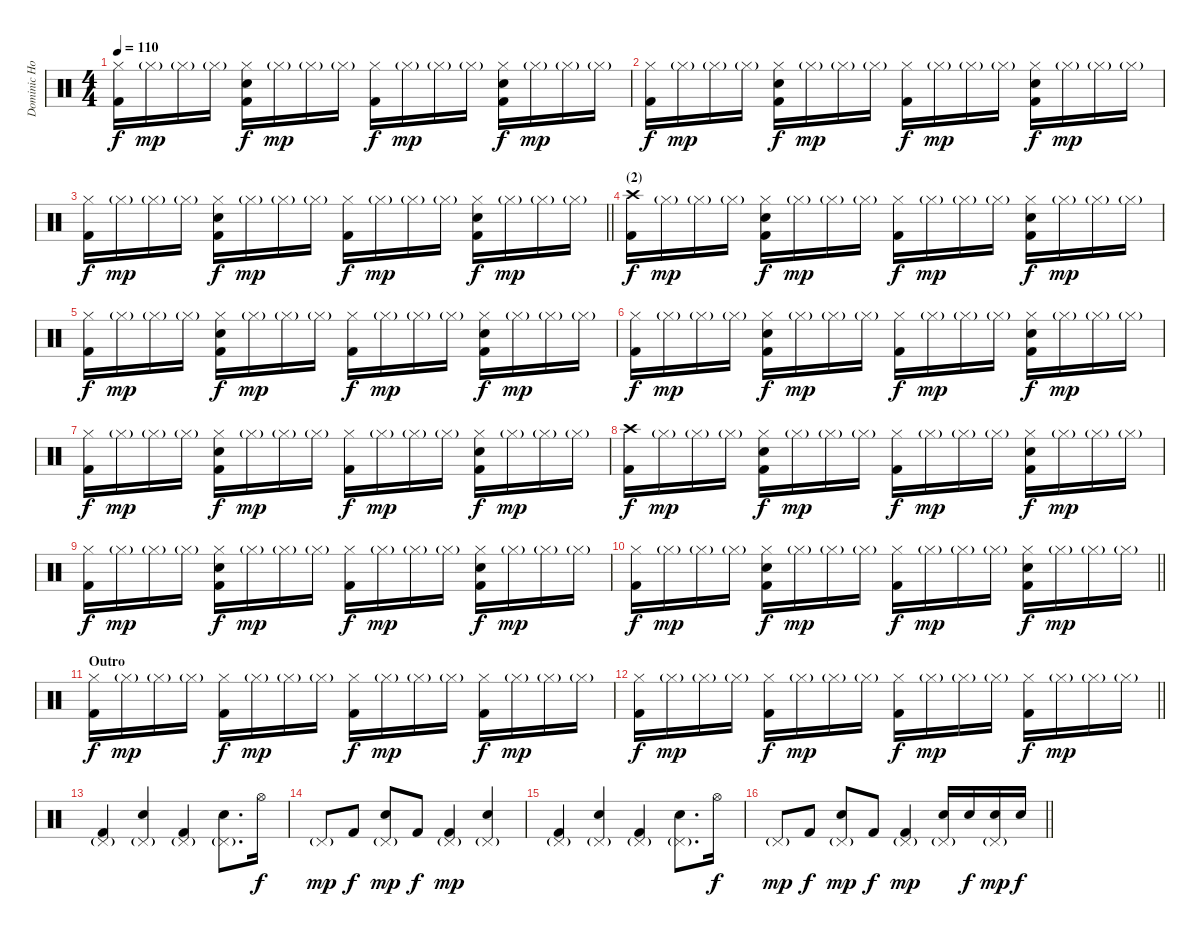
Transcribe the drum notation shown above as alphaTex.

\track ("Dominic Howard (Drums)" "Dominic Ho") {instrument percussion}
\staff {score}
\articulation defaults
\ts (4 4)
\tempo 110
\clef neutral
\ks c
("Hi-Hat (closed)" "Kick (hit) 2").16{dy f} "Hi-Hat (closed)"{g}.16{dy mp} "Hi-Hat (closed)"{g}.16 "Hi-Hat (closed)"{g}.16 ("Hi-Hat (closed)" "Snare (hit) 2" "Kick (hit) 2").16{dy f} "Hi-Hat (closed)"{g}.16{dy mp} "Hi-Hat (closed)"{g}.16 "Hi-Hat (closed)"{g}.16 ("Hi-Hat (closed)" "Kick (hit) 2").16{dy f} "Hi-Hat (closed)"{g}.16{dy mp} "Hi-Hat (closed)"{g}.16 "Hi-Hat (closed)"{g}.16 ("Hi-Hat (closed)" "Snare (hit) 2" "Kick (hit) 2").16{dy f} "Hi-Hat (closed)"{g}.16{dy mp} "Hi-Hat (closed)"{g}.16 "Hi-Hat (closed)"{g}.16 |
("Hi-Hat (closed)" "Kick (hit) 2").16{dy f} "Hi-Hat (closed)"{g}.16{dy mp} "Hi-Hat (closed)"{g}.16 "Hi-Hat (closed)"{g}.16 ("Hi-Hat (closed)" "Snare (hit) 2" "Kick (hit) 2").16{dy f} "Hi-Hat (closed)"{g}.16{dy mp} "Hi-Hat (closed)"{g}.16 "Hi-Hat (closed)"{g}.16 ("Hi-Hat (closed)" "Kick (hit) 2").16{dy f} "Hi-Hat (closed)"{g}.16{dy mp} "Hi-Hat (closed)"{g}.16 "Hi-Hat (closed)"{g}.16 ("Hi-Hat (closed)" "Snare (hit) 2" "Kick (hit) 2").16{dy f} "Hi-Hat (closed)"{g}.16{dy mp} "Hi-Hat (closed)"{g}.16 "Hi-Hat (closed)"{g}.16 |
\barLineRight lightlight
("Hi-Hat (closed)" "Kick (hit) 2").16{dy f} "Hi-Hat (closed)"{g}.16{dy mp} "Hi-Hat (closed)"{g}.16 "Hi-Hat (closed)"{g}.16 ("Hi-Hat (closed)" "Snare (hit) 2" "Kick (hit) 2").16{dy f} "Hi-Hat (closed)"{g}.16{dy mp} "Hi-Hat (closed)"{g}.16 "Hi-Hat (closed)"{g}.16 ("Hi-Hat (closed)" "Kick (hit) 2").16{dy f} "Hi-Hat (closed)"{g}.16{dy mp} "Hi-Hat (closed)"{g}.16 "Hi-Hat (closed)"{g}.16 ("Hi-Hat (closed)" "Snare (hit) 2" "Kick (hit) 2").16{dy f} "Hi-Hat (closed)"{g}.16{dy mp} "Hi-Hat (closed)"{g}.16 "Hi-Hat (closed)"{g}.16 |
\section ("" "(2)")
("Crash high (hit)" "Kick (hit) 2").16{dy f} "Hi-Hat (closed)"{g}.16{dy mp} "Hi-Hat (closed)"{g}.16 "Hi-Hat (closed)"{g}.16 ("Hi-Hat (closed)" "Snare (hit) 2" "Kick (hit) 2").16{dy f} "Hi-Hat (closed)"{g}.16{dy mp} "Hi-Hat (closed)"{g}.16 "Hi-Hat (closed)"{g}.16 ("Hi-Hat (closed)" "Kick (hit) 2").16{dy f} "Hi-Hat (closed)"{g}.16{dy mp} "Hi-Hat (closed)"{g}.16 "Hi-Hat (closed)"{g}.16 ("Hi-Hat (closed)" "Snare (hit) 2" "Kick (hit) 2").16{dy f} "Hi-Hat (closed)"{g}.16{dy mp} "Hi-Hat (closed)"{g}.16 "Hi-Hat (closed)"{g}.16 |
("Hi-Hat (closed)" "Kick (hit) 2").16{dy f} "Hi-Hat (closed)"{g}.16{dy mp} "Hi-Hat (closed)"{g}.16 "Hi-Hat (closed)"{g}.16 ("Hi-Hat (closed)" "Snare (hit) 2" "Kick (hit) 2").16{dy f} "Hi-Hat (closed)"{g}.16{dy mp} "Hi-Hat (closed)"{g}.16 "Hi-Hat (closed)"{g}.16 ("Hi-Hat (closed)" "Kick (hit) 2").16{dy f} "Hi-Hat (closed)"{g}.16{dy mp} "Hi-Hat (closed)"{g}.16 "Hi-Hat (closed)"{g}.16 ("Hi-Hat (closed)" "Snare (hit) 2" "Kick (hit) 2").16{dy f} "Hi-Hat (closed)"{g}.16{dy mp} "Hi-Hat (closed)"{g}.16 "Hi-Hat (closed)"{g}.16 |
("Hi-Hat (closed)" "Kick (hit) 2").16{dy f} "Hi-Hat (closed)"{g}.16{dy mp} "Hi-Hat (closed)"{g}.16 "Hi-Hat (closed)"{g}.16 ("Hi-Hat (closed)" "Snare (hit) 2" "Kick (hit) 2").16{dy f} "Hi-Hat (closed)"{g}.16{dy mp} "Hi-Hat (closed)"{g}.16 "Hi-Hat (closed)"{g}.16 ("Hi-Hat (closed)" "Kick (hit) 2").16{dy f} "Hi-Hat (closed)"{g}.16{dy mp} "Hi-Hat (closed)"{g}.16 "Hi-Hat (closed)"{g}.16 ("Hi-Hat (closed)" "Snare (hit) 2" "Kick (hit) 2").16{dy f} "Hi-Hat (closed)"{g}.16{dy mp} "Hi-Hat (closed)"{g}.16 "Hi-Hat (closed)"{g}.16 |
("Hi-Hat (closed)" "Kick (hit) 2").16{dy f} "Hi-Hat (closed)"{g}.16{dy mp} "Hi-Hat (closed)"{g}.16 "Hi-Hat (closed)"{g}.16 ("Hi-Hat (closed)" "Snare (hit) 2" "Kick (hit) 2").16{dy f} "Hi-Hat (closed)"{g}.16{dy mp} "Hi-Hat (closed)"{g}.16 "Hi-Hat (closed)"{g}.16 ("Hi-Hat (closed)" "Kick (hit) 2").16{dy f} "Hi-Hat (closed)"{g}.16{dy mp} "Hi-Hat (closed)"{g}.16 "Hi-Hat (closed)"{g}.16 ("Hi-Hat (closed)" "Snare (hit) 2" "Kick (hit) 2").16{dy f} "Hi-Hat (closed)"{g}.16{dy mp} "Hi-Hat (closed)"{g}.16 "Hi-Hat (closed)"{g}.16 |
("Crash high (hit)" "Kick (hit) 2").16{dy f} "Hi-Hat (closed)"{g}.16{dy mp} "Hi-Hat (closed)"{g}.16 "Hi-Hat (closed)"{g}.16 ("Hi-Hat (closed)" "Snare (hit) 2" "Kick (hit) 2").16{dy f} "Hi-Hat (closed)"{g}.16{dy mp} "Hi-Hat (closed)"{g}.16 "Hi-Hat (closed)"{g}.16 ("Hi-Hat (closed)" "Kick (hit) 2").16{dy f} "Hi-Hat (closed)"{g}.16{dy mp} "Hi-Hat (closed)"{g}.16 "Hi-Hat (closed)"{g}.16 ("Hi-Hat (closed)" "Snare (hit) 2" "Kick (hit) 2").16{dy f} "Hi-Hat (closed)"{g}.16{dy mp} "Hi-Hat (closed)"{g}.16 "Hi-Hat (closed)"{g}.16 |
("Hi-Hat (closed)" "Kick (hit) 2").16{dy f} "Hi-Hat (closed)"{g}.16{dy mp} "Hi-Hat (closed)"{g}.16 "Hi-Hat (closed)"{g}.16 ("Hi-Hat (closed)" "Snare (hit) 2" "Kick (hit) 2").16{dy f} "Hi-Hat (closed)"{g}.16{dy mp} "Hi-Hat (closed)"{g}.16 "Hi-Hat (closed)"{g}.16 ("Hi-Hat (closed)" "Kick (hit) 2").16{dy f} "Hi-Hat (closed)"{g}.16{dy mp} "Hi-Hat (closed)"{g}.16 "Hi-Hat (closed)"{g}.16 ("Hi-Hat (closed)" "Snare (hit) 2" "Kick (hit) 2").16{dy f} "Hi-Hat (closed)"{g}.16{dy mp} "Hi-Hat (closed)"{g}.16 "Hi-Hat (closed)"{g}.16 |
\barLineRight lightlight
("Hi-Hat (closed)" "Kick (hit) 2").16{dy f} "Hi-Hat (closed)"{g}.16{dy mp} "Hi-Hat (closed)"{g}.16 "Hi-Hat (closed)"{g}.16 ("Hi-Hat (closed)" "Snare (hit) 2" "Kick (hit) 2").16{dy f} "Hi-Hat (closed)"{g}.16{dy mp} "Hi-Hat (closed)"{g}.16 "Hi-Hat (closed)"{g}.16 ("Hi-Hat (closed)" "Kick (hit) 2").16{dy f} "Hi-Hat (closed)"{g}.16{dy mp} "Hi-Hat (closed)"{g}.16 "Hi-Hat (closed)"{g}.16 ("Hi-Hat (closed)" "Snare (hit) 2" "Kick (hit) 2").16{dy f} "Hi-Hat (closed)"{g}.16{dy mp} "Hi-Hat (closed)"{g}.16 "Hi-Hat (closed)"{g}.16 |
\section ("" "Outro")
("Hi-Hat (closed)" "Kick (hit) 2").16{dy f} "Hi-Hat (closed)"{g}.16{dy mp} "Hi-Hat (closed)"{g}.16 "Hi-Hat (closed)"{g}.16 ("Hi-Hat (closed)" "Kick (hit) 2").16{dy f} "Hi-Hat (closed)"{g}.16{dy mp} "Hi-Hat (closed)"{g}.16 "Hi-Hat (closed)"{g}.16 ("Hi-Hat (closed)" "Kick (hit) 2").16{dy f} "Hi-Hat (closed)"{g}.16{dy mp} "Hi-Hat (closed)"{g}.16 "Hi-Hat (closed)"{g}.16 ("Hi-Hat (closed)" "Kick (hit) 2").16{dy f} "Hi-Hat (closed)"{g}.16{dy mp} "Hi-Hat (closed)"{g}.16 "Hi-Hat (closed)"{g}.16 |
\barLineRight lightlight
("Hi-Hat (closed)" "Kick (hit) 2").16{dy f} "Hi-Hat (closed)"{g}.16{dy mp} "Hi-Hat (closed)"{g}.16 "Hi-Hat (closed)"{g}.16 ("Hi-Hat (closed)" "Kick (hit) 2").16{dy f} "Hi-Hat (closed)"{g}.16{dy mp} "Hi-Hat (closed)"{g}.16 "Hi-Hat (closed)"{g}.16 ("Hi-Hat (closed)" "Kick (hit) 2").16{dy f} "Hi-Hat (closed)"{g}.16{dy mp} "Hi-Hat (closed)"{g}.16 "Hi-Hat (closed)"{g}.16 ("Hi-Hat (closed)" "Kick (hit) 2").16{dy f} "Hi-Hat (closed)"{g}.16{dy mp} "Hi-Hat (closed)"{g}.16 "Hi-Hat (closed)"{g}.16 |
("Pedal Hi-Hat (hit)"{g} "Kick (hit) 2").4 ("Pedal Hi-Hat (hit)"{g} "Snare (hit) 2").4 ("Pedal Hi-Hat (hit)"{g} "Kick (hit) 2").4 ("Pedal Hi-Hat (hit)"{g} "Snare (hit) 2").8{d} "Hi-Hat (open)".16{dy f} |
"Pedal Hi-Hat (hit)"{g}.8{dy mp} "Kick (hit) 2".8{dy f} ("Pedal Hi-Hat (hit)"{g} "Snare (hit) 2").8{dy mp} "Kick (hit) 2".8{dy f} ("Pedal Hi-Hat (hit)"{g} "Kick (hit) 2").4{dy mp} ("Pedal Hi-Hat (hit)"{g} "Snare (hit) 2").4 |
("Pedal Hi-Hat (hit)"{g} "Kick (hit) 2").4 ("Pedal Hi-Hat (hit)"{g} "Snare (hit) 2").4 ("Pedal Hi-Hat (hit)"{g} "Kick (hit) 2").4 ("Pedal Hi-Hat (hit)"{g} "Snare (hit) 2").8{d} "Hi-Hat (open)".16{dy f} |
\barLineRight lightlight "Pedal Hi-Hat (hit)"{g}.8{dy mp} "Kick (hit) 2".8{dy f}
("Pedal Hi-Hat (hit)"{g} "Snare (hit) 2").8{dy mp} "Kick (hit) 2".8{dy f} ("Pedal Hi-Hat (hit)"{g} "Kick (hit) 2").4{dy mp} ("Pedal Hi-Hat (hit)"{g} "Snare (hit) 2").16 "Snare (hit) 2".16{dy f} ("Pedal Hi-Hat (hit)"{g} "Snare (hit) 2").16{dy mp} "Snare (hit) 2".16{dy f}
